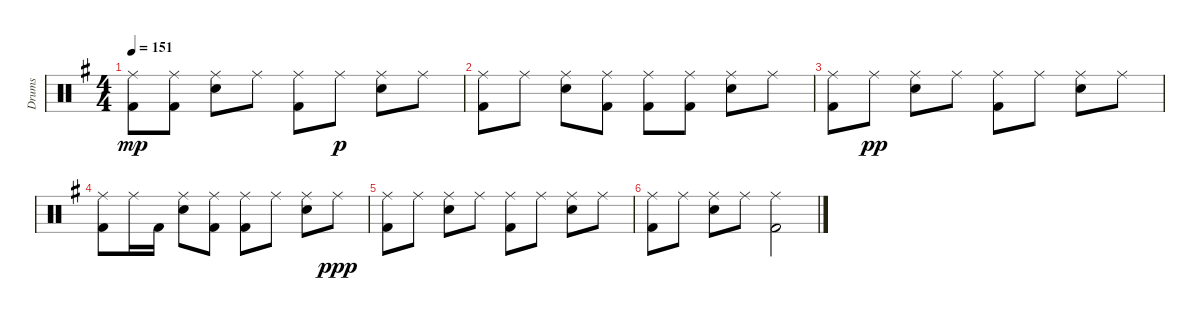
\track ("Drums " "Drums ") {instrument percussion}
\staff {score}
\articulation defaults
\ts (4 4)
\tempo 151
\clef neutral
\ks eminor
("Kick (hit) 2" "Ride (middle)").8{dy mp} ("Kick (hit) 2" "Ride (middle)").8 ("Snare (hit) 2" "Ride (middle)").8 "Ride (middle)".8 ("Kick (hit) 2" "Ride (middle)").8 "Ride (middle)".8{dy p} ("Snare (hit) 2" "Ride (middle)").8 "Ride (middle)".8 |
("Kick (hit) 2" "Ride (middle)").8 "Ride (middle)".8 ("Snare (hit) 2" "Ride (middle)").8 ("Kick (hit) 2" "Ride (middle)").8 ("Kick (hit) 2" "Ride (middle)").8 ("Kick (hit) 2" "Ride (middle)").8 ("Snare (hit) 2" "Ride (middle)").8 "Ride (middle)".8 |
("Kick (hit) 2" "Ride (middle)").8 "Ride (middle)".8{dy pp} ("Snare (hit) 2" "Ride (middle)").8 "Ride (middle)".8 ("Kick (hit) 2" "Ride (middle)").8 "Ride (middle)".8 ("Snare (hit) 2" "Ride (middle)").8 "Ride (middle)".8 |
("Kick (hit) 2" "Ride (middle)").8 "Ride (middle)".16 "Kick (hit) 2".16 ("Snare (hit) 2" "Ride (middle)").8 ("Kick (hit) 2" "Ride (middle)").8 ("Kick (hit) 2" "Ride (middle)").8 "Ride (middle)".8 ("Snare (hit) 2" "Ride (middle)").8 "Ride (middle)".8{dy ppp} |
("Kick (hit) 2" "Ride (middle)").8 "Ride (middle)".8 ("Snare (hit) 2" "Ride (middle)").8 "Ride (middle)".8 ("Kick (hit) 2" "Ride (middle)").8 "Ride (middle)".8 ("Snare (hit) 2" "Ride (middle)").8 "Ride (middle)".8 |
("Kick (hit) 2" "Ride (middle)").8 "Ride (middle)".8 ("Snare (hit) 2" "Ride (middle)").8 "Ride (middle)".8 ("Kick (hit) 2" "Ride (middle)").2
